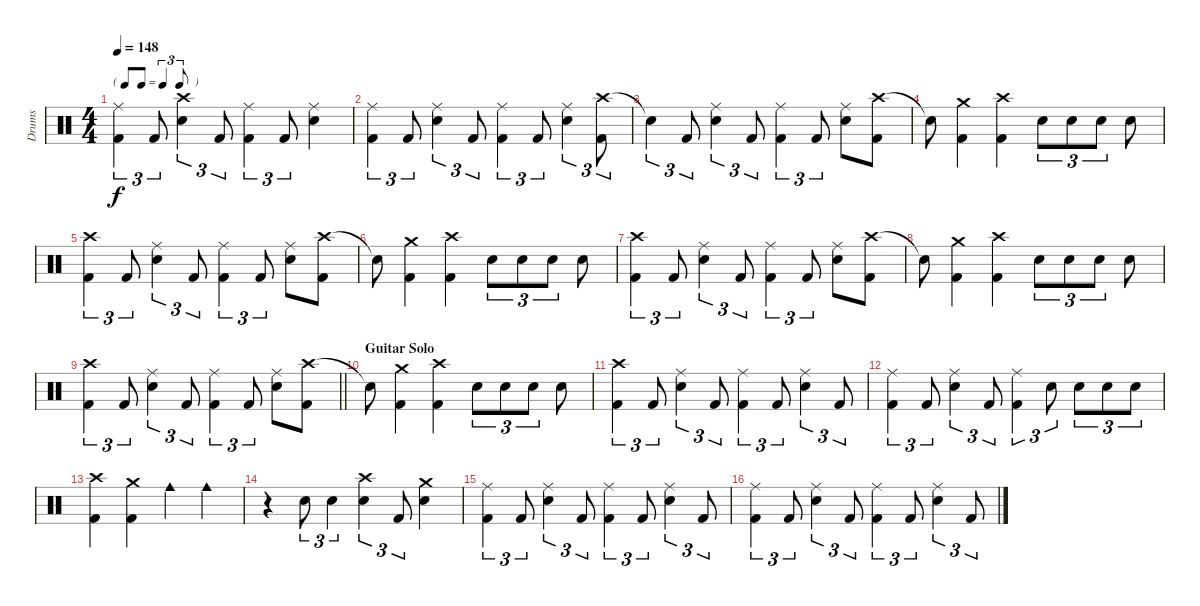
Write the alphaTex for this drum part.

\track ("Drums" "Drums") {instrument percussion}
\staff {score}
\articulation defaults
\ts (4 4)
\tf triplet8th
\tempo 148
\clef neutral
\ks c
("Ride (middle)" "Kick (hit) 2").4{tu (3 2) dy f} "Kick (hit) 2".8{tu (3 2)} ("Crash high (hit)" "Snare (hit) 2").4{tu (3 2)} "Kick (hit) 2".8{tu (3 2)} ("Ride (middle)" "Kick (hit) 2").4{tu (3 2)} "Kick (hit) 2".8{tu (3 2)} ("Ride (middle)" "Snare (hit) 2").4 |
("Ride (middle)" "Kick (hit) 2").4{tu (3 2)} "Kick (hit) 2".8{tu (3 2)} ("Ride (middle)" "Snare (hit) 2").4{tu (3 2)} "Kick (hit) 2".8{tu (3 2)} ("Ride (middle)" "Kick (hit) 2").4{tu (3 2)} "Kick (hit) 2".8{tu (3 2)} ("Ride (middle)" "Snare (hit) 2").4{tu (3 2)} ("Crash high (hit)" "Kick (hit) 2").8{tu (3 2)} |
"Snare (hit)"{t}.4{tu (3 2)} "Kick (hit) 2".8{tu (3 2)} ("Ride (middle)" "Snare (hit) 2").4{tu (3 2)} "Kick (hit) 2".8{tu (3 2)} ("Ride (middle)" "Kick (hit) 2").4{tu (3 2)} "Kick (hit) 2".8{tu (3 2)} ("Ride (middle)" "Snare (hit) 2").8 ("Crash high (hit)" "Kick (hit) 2").8 |
"Snare (hit)"{t}.8 ("Crash medium (hit)" "Kick (hit) 2").4 ("Crash high (hit)" "Kick (hit) 2").4 "Snare (hit) 2".8{tu (3 2)} "Snare (hit) 2".8{tu (3 2)} "Snare (hit) 2".8{tu (3 2)} "Snare (hit) 2".8 |
("Crash high (hit)" "Kick (hit) 2").4{tu (3 2)} "Kick (hit) 2".8{tu (3 2)} ("Ride (middle)" "Snare (hit) 2").4{tu (3 2)} "Kick (hit) 2".8{tu (3 2)} ("Ride (middle)" "Kick (hit) 2").4{tu (3 2)} "Kick (hit) 2".8{tu (3 2)} ("Ride (middle)" "Snare (hit) 2").8 ("Crash high (hit)" "Kick (hit) 2").8 |
"Snare (hit)"{t}.8 ("Crash medium (hit)" "Kick (hit) 2").4 ("Crash high (hit)" "Kick (hit) 2").4 "Snare (hit) 2".8{tu (3 2)} "Snare (hit) 2".8{tu (3 2)} "Snare (hit) 2".8{tu (3 2)} "Snare (hit) 2".8 |
("Crash high (hit)" "Kick (hit) 2").4{tu (3 2)} "Kick (hit) 2".8{tu (3 2)} ("Ride (middle)" "Snare (hit) 2").4{tu (3 2)} "Kick (hit) 2".8{tu (3 2)} ("Ride (middle)" "Kick (hit) 2").4{tu (3 2)} "Kick (hit) 2".8{tu (3 2)} ("Ride (middle)" "Snare (hit) 2").8 ("Crash high (hit)" "Kick (hit) 2").8 |
"Snare (hit)"{t}.8 ("Crash medium (hit)" "Kick (hit) 2").4 ("Crash high (hit)" "Kick (hit) 2").4 "Snare (hit) 2".8{tu (3 2)} "Snare (hit) 2".8{tu (3 2)} "Snare (hit) 2".8{tu (3 2)} "Snare (hit) 2".8 |
\barLineRight lightlight
("Crash high (hit)" "Kick (hit) 2").4{tu (3 2)} "Kick (hit) 2".8{tu (3 2)} ("Ride (middle)" "Snare (hit) 2").4{tu (3 2)} "Kick (hit) 2".8{tu (3 2)} ("Ride (middle)" "Kick (hit) 2").4{tu (3 2)} "Kick (hit) 2".8{tu (3 2)} ("Ride (middle)" "Snare (hit) 2").8 ("Crash high (hit)" "Kick (hit) 2").8 |
\section ("" "Guitar Solo")
"Snare (hit)"{t}.8 ("Crash medium (hit)" "Kick (hit) 2").4 ("Crash high (hit)" "Kick (hit) 2").4 "Snare (hit) 2".8{tu (3 2)} "Snare (hit) 2".8{tu (3 2)} "Snare (hit) 2".8{tu (3 2)} "Snare (hit) 2".8 |
("Crash high (hit)" "Kick (hit) 2").4{tu (3 2)} "Kick (hit) 2".8{tu (3 2)} ("Ride (middle)" "Snare (hit) 2").4{tu (3 2)} "Kick (hit) 2".8{tu (3 2)} ("Ride (middle)" "Kick (hit) 2").4{tu (3 2)} "Kick (hit) 2".8{tu (3 2)} ("Ride (middle)" "Snare (hit) 2").4{tu (3 2)} "Kick (hit) 2".8{tu (3 2)} |
("Ride (middle)" "Kick (hit) 2").4{tu (3 2)} "Kick (hit) 2".8{tu (3 2)} ("Ride (middle)" "Snare (hit) 2").4{tu (3 2)} "Kick (hit) 2".8{tu (3 2)} ("Ride (middle)" "Kick (hit) 2").4{tu (3 2)} "Snare (hit) 2".8{tu (3 2)} "Snare (hit) 2".8{tu (3 2)} "Snare (hit) 2".8{tu (3 2)} "Snare (hit) 2".8{tu (3 2)} |
("Crash high (hit)" "Kick (hit) 2").4 ("Crash medium (hit)" "Kick (hit) 2").4 "Cowbell medium (hit)".4 "Cowbell medium (hit)".4 |
r.4 "Snare (hit) 2".8{tu (3 2)} "Snare (hit) 2".4{tu (3 2)} ("Crash high (hit)" "Snare (hit) 2").4{tu (3 2)} "Kick (hit) 2".8{tu (3 2)} ("Crash medium (hit)" "Snare (hit) 2").4 |
("Ride (middle)" "Kick (hit) 2").4{tu (3 2)} "Kick (hit) 2".8{tu (3 2)} ("Ride (middle)" "Snare (hit) 2").4{tu (3 2)} "Kick (hit) 2".8{tu (3 2)} ("Ride (middle)" "Kick (hit) 2").4{tu (3 2)} "Kick (hit) 2".8{tu (3 2)} ("Ride (middle)" "Snare (hit) 2").4{tu (3 2)} "Kick (hit) 2".8{tu (3 2)} |
("Ride (middle)" "Kick (hit) 2").4{tu (3 2)} "Kick (hit) 2".8{tu (3 2)} ("Ride (middle)" "Snare (hit) 2").4{tu (3 2)} "Kick (hit) 2".8{tu (3 2)} ("Ride (middle)" "Kick (hit) 2").4{tu (3 2)} "Kick (hit) 2".8{tu (3 2)} ("Ride (middle)" "Snare (hit) 2").4{tu (3 2)} "Kick (hit) 2".8{tu (3 2)}
